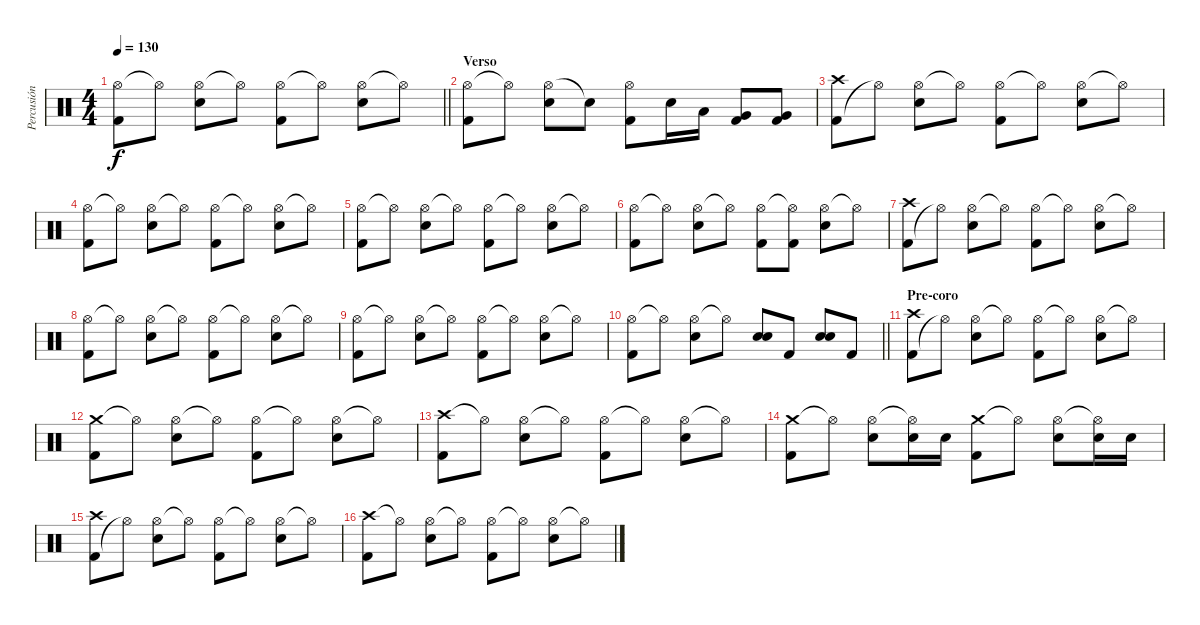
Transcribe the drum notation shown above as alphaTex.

\track ("Percusión" "Percusión") {instrument percussion}
\staff {score}
\articulation defaults
\ts (4 4)
\tempo 130
\clef neutral
\barLineRight lightlight
\ks c
("Hi-Hat (open)" "Kick (hit) 2").8{dy f} "Hi-Hat (open)"{t}.8 ("Hi-Hat (open)" "Snare (hit) 2").8 "Hi-Hat (open)"{t}.8 ("Hi-Hat (open)" "Kick (hit) 2").8 "Hi-Hat (open)"{t}.8 ("Hi-Hat (open)" "Snare (hit) 2").8 "Hi-Hat (open)"{t}.8 |
\section ("" "Verso")
("Hi-Hat (open)" "Kick (hit) 2").8 "Hi-Hat (open)"{t}.8 ("Hi-Hat (open)" "Snare (hit) 2").8 "Snare (hit)"{t}.8 ("Hi-Hat (open)" "Kick (hit) 2").8 "Snare (hit) 2".16 "Low Tom (hit)".16 ("Very Low Tom (hit)" "Kick (hit) 2").8 ("Very Low Tom (hit)" "Kick (hit) 2").8 |
("Kick (hit) 2" "Crash high (hit)").8 "Hi-Hat (open)"{t}.8 ("Hi-Hat (open)" "Snare (hit) 2").8 "Hi-Hat (open)"{t}.8 ("Hi-Hat (open)" "Kick (hit) 2").8 "Hi-Hat (open)"{t}.8 ("Hi-Hat (open)" "Snare (hit) 2").8 "Hi-Hat (open)"{t}.8 |
("Hi-Hat (open)" "Kick (hit) 2").8 "Hi-Hat (open)"{t}.8 ("Hi-Hat (open)" "Snare (hit) 2").8 "Hi-Hat (open)"{t}.8 ("Hi-Hat (open)" "Kick (hit) 2").8 "Hi-Hat (open)"{t}.8 ("Hi-Hat (open)" "Snare (hit) 2").8 "Hi-Hat (open)"{t}.8 |
("Hi-Hat (open)" "Kick (hit) 2").8 "Hi-Hat (open)"{t}.8 ("Hi-Hat (open)" "Snare (hit) 2").8 "Hi-Hat (open)"{t}.8 ("Hi-Hat (open)" "Kick (hit) 2").8 "Hi-Hat (open)"{t}.8 ("Hi-Hat (open)" "Snare (hit) 2").8 "Hi-Hat (open)"{t}.8 |
("Hi-Hat (open)" "Kick (hit) 2").8 "Hi-Hat (open)"{t}.8 ("Hi-Hat (open)" "Snare (hit) 2").8 "Hi-Hat (open)"{t}.8 ("Hi-Hat (open)" "Kick (hit) 2").8 ("Hi-Hat (open)"{t} "Kick (hit) 2").8 ("Hi-Hat (open)" "Snare (hit) 2").8 "Hi-Hat (open)"{t}.8 |
("Kick (hit) 2" "Crash high (hit)").8 "Hi-Hat (open)"{t}.8 ("Hi-Hat (open)" "Snare (hit) 2").8 "Hi-Hat (open)"{t}.8 ("Hi-Hat (open)" "Kick (hit) 2").8 "Hi-Hat (open)"{t}.8 ("Hi-Hat (open)" "Snare (hit) 2").8 "Hi-Hat (open)"{t}.8 |
("Hi-Hat (open)" "Kick (hit) 2").8 "Hi-Hat (open)"{t}.8 ("Hi-Hat (open)" "Snare (hit) 2").8 "Hi-Hat (open)"{t}.8 ("Hi-Hat (open)" "Kick (hit) 2").8 "Hi-Hat (open)"{t}.8 ("Hi-Hat (open)" "Snare (hit) 2").8 "Hi-Hat (open)"{t}.8 |
("Hi-Hat (open)" "Kick (hit) 2").8 "Hi-Hat (open)"{t}.8 ("Hi-Hat (open)" "Snare (hit) 2").8 "Hi-Hat (open)"{t}.8 ("Hi-Hat (open)" "Kick (hit) 2").8 "Hi-Hat (open)"{t}.8 ("Hi-Hat (open)" "Snare (hit) 2").8 "Hi-Hat (open)"{t}.8 |
\barLineRight lightlight
("Hi-Hat (open)" "Kick (hit) 2").8 "Hi-Hat (open)"{t}.8 ("Hi-Hat (open)" "Snare (hit) 2").8 "Hi-Hat (open)"{t}.8 ("Snare (hit) 2" "Electric Snare (hit)").8 "Kick (hit) 2".8 ("Snare (hit) 2" "Electric Snare (hit)").8 "Kick (hit) 2".8 |
\section ("" "Pre-coro")
("Kick (hit) 2" "Crash high (hit)").8 "Hi-Hat (open)"{t}.8 ("Hi-Hat (open)" "Snare (hit) 2").8 "Hi-Hat (open)"{t}.8 ("Hi-Hat (open)" "Kick (hit) 2").8 "Hi-Hat (open)"{t}.8 ("Hi-Hat (open)" "Snare (hit) 2").8 "Hi-Hat (open)"{t}.8 |
("Crash medium (hit)" "Kick (hit) 2").8 "Hi-Hat (open)"{t}.8 ("Hi-Hat (open)" "Snare (hit) 2").8 "Hi-Hat (open)"{t}.8 ("Hi-Hat (open)" "Kick (hit) 2").8 "Hi-Hat (open)"{t}.8 ("Hi-Hat (open)" "Snare (hit) 2").8 "Hi-Hat (open)"{t}.8 |
("Crash high (hit)" "Kick (hit) 2").8 "Hi-Hat (open)"{t}.8 ("Hi-Hat (open)" "Snare (hit) 2").8 "Hi-Hat (open)"{t}.8 ("Hi-Hat (open)" "Kick (hit) 2").8 "Hi-Hat (open)"{t}.8 ("Hi-Hat (open)" "Snare (hit) 2").8 "Hi-Hat (open)"{t}.8 |
("Crash medium (hit)" "Kick (hit) 2").8 "Hi-Hat (open)"{t}.8 ("Hi-Hat (open)" "Snare (hit) 2").8 ("Hi-Hat (open)"{t} "Snare (hit) 2").16 "Snare (hit) 2".16 ("Crash medium (hit)" "Kick (hit) 2").8 "Hi-Hat (open)"{t}.8 ("Hi-Hat (open)" "Snare (hit) 2").8 ("Hi-Hat (open)"{t} "Snare (hit) 2").16 "Snare (hit) 2".16 |
("Kick (hit) 2" "Crash high (hit)").8 "Hi-Hat (open)"{t}.8 ("Hi-Hat (open)" "Snare (hit) 2").8 "Hi-Hat (open)"{t}.8 ("Hi-Hat (open)" "Kick (hit) 2").8 "Hi-Hat (open)"{t}.8 ("Hi-Hat (open)" "Snare (hit) 2").8 "Hi-Hat (open)"{t}.8 |
("Crash high (hit)" "Kick (hit) 2").8 "Hi-Hat (open)"{t}.8 ("Hi-Hat (open)" "Snare (hit) 2").8 "Hi-Hat (open)"{t}.8 ("Hi-Hat (open)" "Kick (hit) 2").8 "Hi-Hat (open)"{t}.8 ("Hi-Hat (open)" "Snare (hit) 2").8 "Hi-Hat (open)"{t}.8
